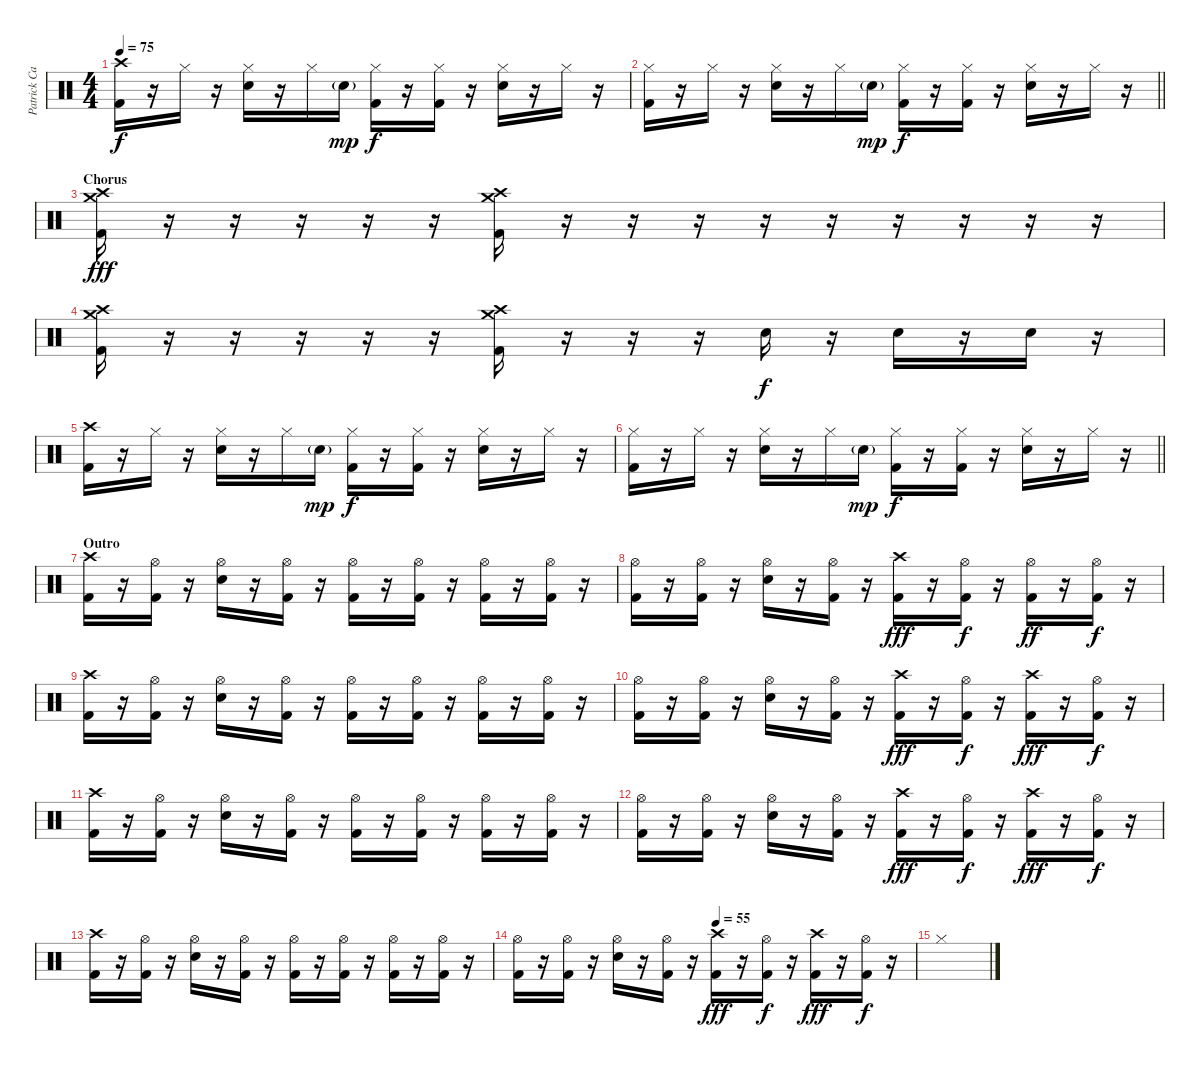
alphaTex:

\track ("Patrick Carney - Drums" "Patrick Ca") {instrument percussion}
\staff {score}
\articulation defaults
\ts (4 4)
\tempo 75
\clef neutral
\ks c
("Crash high (hit)" "Kick (hit) 2").16{dy f} r.16 "Hi-Hat (closed)".16 r.16 ("Hi-Hat (closed)" "Electric Snare (hit)").16 r.16 "Hi-Hat (closed)".16 "Electric Snare (hit)"{g}.16{dy mp} ("Hi-Hat (closed)" "Kick (hit) 2").16{dy f} r.16 ("Hi-Hat (closed)" "Kick (hit) 2").16 r.16 ("Hi-Hat (closed)" "Electric Snare (hit)").16 r.16 "Hi-Hat (closed)".16 r.16 |
\barLineRight lightlight
("Hi-Hat (closed)" "Kick (hit) 2").16 r.16 "Hi-Hat (closed)".16 r.16 ("Hi-Hat (closed)" "Electric Snare (hit)").16 r.16 "Hi-Hat (closed)".16 "Electric Snare (hit)"{g}.16{dy mp} ("Hi-Hat (closed)" "Kick (hit) 2").16{dy f} r.16 ("Hi-Hat (closed)" "Kick (hit) 2").16 r.16 ("Hi-Hat (closed)" "Electric Snare (hit)").16 r.16 "Hi-Hat (closed)".16 r.16 |
\section ("" "Chorus")
("Crash high (hit)" "Crash medium (hit)" "Kick (hit) 2").16{dy fff} r.16 r.16 r.16 r.16 r.16 ("Crash high (hit)" "Crash medium (hit)" "Kick (hit) 2").16 r.16 r.16 r.16 r.16 r.16 r.16 r.16 r.16 r.16 |
("Crash high (hit)" "Crash medium (hit)" "Kick (hit) 2").16 r.16 r.16 r.16 r.16 r.16 ("Crash high (hit)" "Crash medium (hit)" "Kick (hit) 2").16 r.16 r.16 r.16 "Electric Snare (hit)".16{dy f} r.16 "Electric Snare (hit)".16 r.16 "Electric Snare (hit)".16 r.16 |
("Crash high (hit)" "Kick (hit) 2").16 r.16 "Hi-Hat (closed)".16 r.16 ("Hi-Hat (closed)" "Electric Snare (hit)").16 r.16 "Hi-Hat (closed)".16 "Electric Snare (hit)"{g}.16{dy mp} ("Hi-Hat (closed)" "Kick (hit) 2").16{dy f} r.16 ("Hi-Hat (closed)" "Kick (hit) 2").16 r.16 ("Hi-Hat (closed)" "Electric Snare (hit)").16 r.16 "Hi-Hat (closed)".16 r.16 |
\barLineRight lightlight
("Hi-Hat (closed)" "Kick (hit) 2").16 r.16 "Hi-Hat (closed)".16 r.16 ("Hi-Hat (closed)" "Electric Snare (hit)").16 r.16 "Hi-Hat (closed)".16 "Electric Snare (hit)"{g}.16{dy mp} ("Hi-Hat (closed)" "Kick (hit) 2").16{dy f} r.16 ("Hi-Hat (closed)" "Kick (hit) 2").16 r.16 ("Hi-Hat (closed)" "Electric Snare (hit)").16 r.16 "Hi-Hat (closed)".16 r.16 |
\section ("" "Outro")
("Crash high (hit)" "Kick (hit) 2").16 r.16 ("Hi-Hat (open)" "Kick (hit) 2").16 r.16 ("Hi-Hat (open)" "Electric Snare (hit)").16 r.16 ("Hi-Hat (open)" "Kick (hit) 2").16 r.16 ("Hi-Hat (open)" "Kick (hit) 2").16 r.16 ("Hi-Hat (open)" "Kick (hit) 2").16 r.16 ("Hi-Hat (open)" "Kick (hit) 2").16 r.16 ("Hi-Hat (open)" "Kick (hit) 2").16 r.16 |
("Hi-Hat (open)" "Kick (hit) 2").16 r.16 ("Hi-Hat (open)" "Kick (hit) 2").16 r.16 ("Hi-Hat (open)" "Electric Snare (hit)").16 r.16 ("Hi-Hat (open)" "Kick (hit) 2").16 r.16 ("Crash high (hit)" "Kick (hit) 2").16{dy fff} r.16 ("Hi-Hat (open)" "Kick (hit) 2").16{dy f} r.16 ("Hi-Hat (open)" "Kick (hit) 2").16{dy ff} r.16 ("Hi-Hat (open)" "Kick (hit) 2").16{dy f} r.16 |
("Crash high (hit)" "Kick (hit) 2").16 r.16 ("Hi-Hat (open)" "Kick (hit) 2").16 r.16 ("Hi-Hat (open)" "Electric Snare (hit)").16 r.16 ("Hi-Hat (open)" "Kick (hit) 2").16 r.16 ("Hi-Hat (open)" "Kick (hit) 2").16 r.16 ("Hi-Hat (open)" "Kick (hit) 2").16 r.16 ("Hi-Hat (open)" "Kick (hit) 2").16 r.16 ("Hi-Hat (open)" "Kick (hit) 2").16 r.16 |
("Hi-Hat (open)" "Kick (hit) 2").16 r.16 ("Hi-Hat (open)" "Kick (hit) 2").16 r.16 ("Hi-Hat (open)" "Electric Snare (hit)").16 r.16 ("Hi-Hat (open)" "Kick (hit) 2").16 r.16 ("Crash high (hit)" "Kick (hit) 2").16{dy fff} r.16 ("Hi-Hat (open)" "Kick (hit) 2").16{dy f} r.16 ("Crash high (hit)" "Kick (hit) 2").16{dy fff} r.16 ("Hi-Hat (open)" "Kick (hit) 2").16{dy f} r.16 |
("Crash high (hit)" "Kick (hit) 2").16 r.16 ("Hi-Hat (open)" "Kick (hit) 2").16 r.16 ("Hi-Hat (open)" "Electric Snare (hit)").16 r.16 ("Hi-Hat (open)" "Kick (hit) 2").16 r.16 ("Hi-Hat (open)" "Kick (hit) 2").16 r.16 ("Hi-Hat (open)" "Kick (hit) 2").16 r.16 ("Hi-Hat (open)" "Kick (hit) 2").16 r.16 ("Hi-Hat (open)" "Kick (hit) 2").16 r.16 |
("Hi-Hat (open)" "Kick (hit) 2").16 r.16 ("Hi-Hat (open)" "Kick (hit) 2").16 r.16 ("Hi-Hat (open)" "Electric Snare (hit)").16 r.16 ("Hi-Hat (open)" "Kick (hit) 2").16 r.16 ("Crash high (hit)" "Kick (hit) 2").16{dy fff} r.16 ("Hi-Hat (open)" "Kick (hit) 2").16{dy f} r.16 ("Crash high (hit)" "Kick (hit) 2").16{dy fff} r.16 ("Hi-Hat (open)" "Kick (hit) 2").16{dy f} r.16 |
("Crash high (hit)" "Kick (hit) 2").16 r.16 ("Hi-Hat (open)" "Kick (hit) 2").16 r.16 ("Hi-Hat (open)" "Electric Snare (hit)").16 r.16 ("Hi-Hat (open)" "Kick (hit) 2").16 r.16 ("Hi-Hat (open)" "Kick (hit) 2").16 r.16 ("Hi-Hat (open)" "Kick (hit) 2").16 r.16 ("Hi-Hat (open)" "Kick (hit) 2").16 r.16 ("Hi-Hat (open)" "Kick (hit) 2").16 r.16 |
\tempo (55 0.5)
("Hi-Hat (open)" "Kick (hit) 2").16 r.16 ("Hi-Hat (open)" "Kick (hit) 2").16 r.16 ("Hi-Hat (open)" "Electric Snare (hit)").16 r.16 ("Hi-Hat (open)" "Kick (hit) 2").16 r.16 ("Crash high (hit)" "Kick (hit) 2").16{dy fff} r.16 ("Hi-Hat (open)" "Kick (hit) 2").16{dy f} r.16 ("Crash high (hit)" "Kick (hit) 2").16{dy fff} r.16 ("Hi-Hat (open)" "Kick (hit) 2").16{dy f} r.16 |
"Hi-Hat (closed)".1
